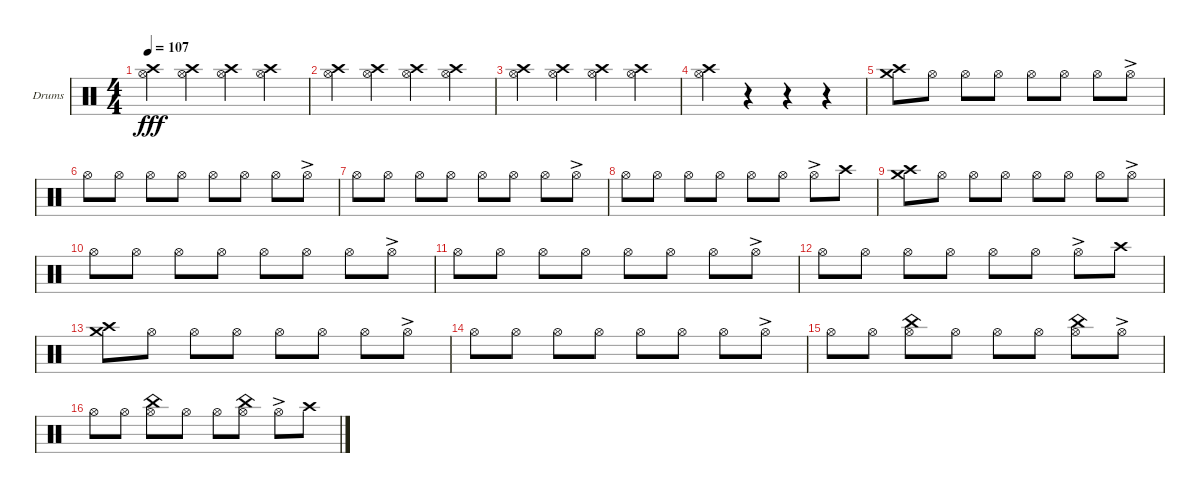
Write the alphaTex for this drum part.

\defaultSystemsLayout 4
\bracketExtendMode groupsimilarinstruments
\firstSystemTrackNameOrientation horizontal
\otherSystemsTrackNameOrientation horizontal
\track ("Helders" "Drums") {instrument percussion}
\staff {score}
\articulation defaults
\ts (4 4)
\tempo 107
\clef neutral
\ks c
("Hi-Hat (open)" "Crash high (hit)").4{dy fff} ("Hi-Hat (open)" "Crash high (hit)").4 ("Hi-Hat (open)" "Crash high (hit)").4 ("Hi-Hat (open)" "Crash high (hit)").4 |
("Hi-Hat (open)" "Crash high (hit)").4 ("Hi-Hat (open)" "Crash high (hit)").4 ("Hi-Hat (open)" "Crash high (hit)").4 ("Hi-Hat (open)" "Crash high (hit)").4 |
("Hi-Hat (open)" "Crash high (hit)").4 ("Hi-Hat (open)" "Crash high (hit)").4 ("Hi-Hat (open)" "Crash high (hit)").4 ("Hi-Hat (open)" "Crash high (hit)").4 |
("Hi-Hat (open)" "Crash high (hit)").4 r.4 r.4 r.4 |
("Crash medium (hit)" "Crash high (hit)").8 "Hi-Hat (open)".8 "Hi-Hat (open)".8 "Hi-Hat (open)".8 "Hi-Hat (open)".8 "Hi-Hat (open)".8 "Hi-Hat (open)".8 "Hi-Hat (open)"{ac}.8 |
"Hi-Hat (open)".8 "Hi-Hat (open)".8 "Hi-Hat (open)".8 "Hi-Hat (open)".8 "Hi-Hat (open)".8 "Hi-Hat (open)".8 "Hi-Hat (open)".8 "Hi-Hat (open)"{ac}.8 |
"Hi-Hat (open)".8 "Hi-Hat (open)".8 "Hi-Hat (open)".8 "Hi-Hat (open)".8 "Hi-Hat (open)".8 "Hi-Hat (open)".8 "Hi-Hat (open)".8 "Hi-Hat (open)"{ac}.8 |
"Hi-Hat (open)".8 "Hi-Hat (open)".8 "Hi-Hat (open)".8 "Hi-Hat (open)".8 "Hi-Hat (open)".8 "Hi-Hat (open)".8 "Hi-Hat (open)"{ac}.8 "Crash high (hit)".8 |
("Crash medium (hit)" "Crash high (hit)").8 "Hi-Hat (open)".8 "Hi-Hat (open)".8 "Hi-Hat (open)".8 "Hi-Hat (open)".8 "Hi-Hat (open)".8 "Hi-Hat (open)".8 "Hi-Hat (open)"{ac}.8 |
"Hi-Hat (open)".8 "Hi-Hat (open)".8 "Hi-Hat (open)".8 "Hi-Hat (open)".8 "Hi-Hat (open)".8 "Hi-Hat (open)".8 "Hi-Hat (open)".8 "Hi-Hat (open)"{ac}.8 |
"Hi-Hat (open)".8 "Hi-Hat (open)".8 "Hi-Hat (open)".8 "Hi-Hat (open)".8 "Hi-Hat (open)".8 "Hi-Hat (open)".8 "Hi-Hat (open)".8 "Hi-Hat (open)"{ac}.8 |
"Hi-Hat (open)".8 "Hi-Hat (open)".8 "Hi-Hat (open)".8 "Hi-Hat (open)".8 "Hi-Hat (open)".8 "Hi-Hat (open)".8 "Hi-Hat (open)"{ac}.8 "Crash high (hit)".8 |
("Crash medium (hit)" "Crash high (hit)").8 "Hi-Hat (open)".8 "Hi-Hat (open)".8 "Hi-Hat (open)".8 "Hi-Hat (open)".8 "Hi-Hat (open)".8 "Hi-Hat (open)".8 "Hi-Hat (open)"{ac}.8 |
"Hi-Hat (open)".8 "Hi-Hat (open)".8 "Hi-Hat (open)".8 "Hi-Hat (open)".8 "Hi-Hat (open)".8 "Hi-Hat (open)".8 "Hi-Hat (open)".8 "Hi-Hat (open)"{ac}.8 |
"Hi-Hat (open)".8 "Hi-Hat (open)".8 ("Hi-Hat (open)" "China (hit)").8 "Hi-Hat (open)".8 "Hi-Hat (open)".8 "Hi-Hat (open)".8 ("Hi-Hat (open)" "China (hit)").8 "Hi-Hat (open)"{ac}.8 |
"Hi-Hat (open)".8 "Hi-Hat (open)".8 ("Hi-Hat (open)" "China (hit)").8 "Hi-Hat (open)".8 "Hi-Hat (open)".8 ("Hi-Hat (open)" "China (hit)").8 "Hi-Hat (open)"{ac}.8 "Crash high (hit)".8
